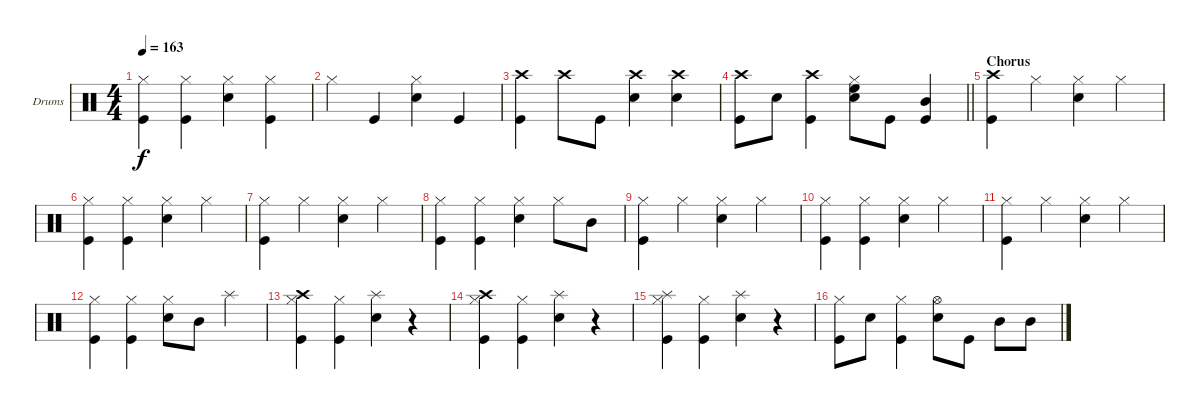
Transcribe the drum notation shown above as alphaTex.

\bracketExtendMode groupsimilarinstruments
\firstSystemTrackNameOrientation horizontal
\otherSystemsTrackNameOrientation horizontal
\track ("Drumkit" "Drums") {instrument percussion}
\staff {score}
\articulation defaults
\ts (4 4)
\tempo 163
\clef neutral
\scale
0.333333
\ks c
("Kick (hit)" "Hi-Hat (closed)").4{dy f} ("Kick (hit)" "Hi-Hat (closed)").4 ("Snare (hit) 2" "Hi-Hat (closed)").4 ("Kick (hit)" "Hi-Hat (closed)").4 |
\scale
0.333333 "Hi-Hat (closed)".4 "Kick (hit)".4 ("Snare (hit) 2" "Hi-Hat (closed)").4 "Kick (hit)".4 |
\scale
0.333333 ("Crash high (hit)" "Kick (hit)").4 "Crash high (hit)".8 "Kick (hit)".8 ("Crash high (hit)" "Snare (hit) 2").4 ("Crash high (hit)" "Snare (hit) 2").4 |
\scale
0.333333
\barLineRight lightlight
("Crash high (hit)" "Kick (hit)").8 "Snare (hit) 2".8 ("Crash high (hit)" "Kick (hit)").4 ("Hi-Hat (closed)" "Snare (hit) 2" "High Floor Tom (hit)").8 "Kick (hit)".8 ("Kick (hit)" "Mid Tom (hit)").4 |
\section ("" "Chorus")
\scale
0.333333 ("Crash high (hit)" "Kick (hit)").4 "Hi-Hat (closed)".4 ("Hi-Hat (closed)" "Snare (hit) 2").4 "Hi-Hat (closed)".4 |
\scale
0.333333 ("Hi-Hat (closed)" "Kick (hit)").4 ("Hi-Hat (closed)" "Kick (hit)").4 ("Hi-Hat (closed)" "Snare (hit) 2").4 "Hi-Hat (closed)".4 |
\scale
0.333333 ("Hi-Hat (closed)" "Kick (hit)").4 "Hi-Hat (closed)".4 ("Hi-Hat (closed)" "Snare (hit) 2").4 "Hi-Hat (closed)".4 |
\scale
0.333333 ("Hi-Hat (closed)" "Kick (hit)").4 ("Hi-Hat (closed)" "Kick (hit)").4 ("Hi-Hat (closed)" "Snare (hit) 2").4 "Hi-Hat (closed)".8 "Mid Tom (hit)".8 |
\scale
0.333333 ("Hi-Hat (closed)" "Kick (hit)").4 "Hi-Hat (closed)".4 ("Hi-Hat (closed)" "Snare (hit) 2").4 "Hi-Hat (closed)".4 |
\scale
0.333333 ("Hi-Hat (closed)" "Kick (hit)").4 ("Hi-Hat (closed)" "Kick (hit)").4 ("Hi-Hat (closed)" "Snare (hit) 2").4 "Hi-Hat (closed)".4 |
\scale
0.333333 ("Hi-Hat (closed)" "Kick (hit)").4 "Hi-Hat (closed)".4 ("Hi-Hat (closed)" "Snare (hit) 2").4 "Hi-Hat (closed)".4 |
\scale
0.333333 ("Hi-Hat (closed)" "Kick (hit)").4 ("Hi-Hat (closed)" "Kick (hit)").4 ("Hi-Hat (closed)" "Snare (hit) 2").8 "Mid Tom (hit)".8 "Splash (hit)".4 |
\scale
0.333333 ("Crash high (hit)" "Kick (hit)" "Hi-Hat (closed)").4 ("Kick (hit)" "Hi-Hat (closed)").4 ("Splash (hit)" "Snare (hit) 2").4 r.4 |
\scale
0.333333 ("Crash high (hit)" "Kick (hit)" "Hi-Hat (closed)").4 ("Kick (hit)" "Hi-Hat (closed)").4 ("Splash (hit)" "Snare (hit) 2").4 r.4 |
\scale
0.333333 ("Splash (hit)" "Kick (hit)" "Hi-Hat (closed)").4 ("Kick (hit)" "Hi-Hat (closed)").4 ("Splash (hit)" "Snare (hit) 2").4 r.4 |
\scale
0.333333 ("Kick (hit)" "Hi-Hat (closed)").8 "Snare (hit) 2".8 ("Kick (hit)" "Hi-Hat (closed)").4 ("Hi-Hat (open)" "Snare (hit) 2").8 "Kick (hit)".8 "Mid Tom (hit)".8 "Mid Tom (hit)".8
